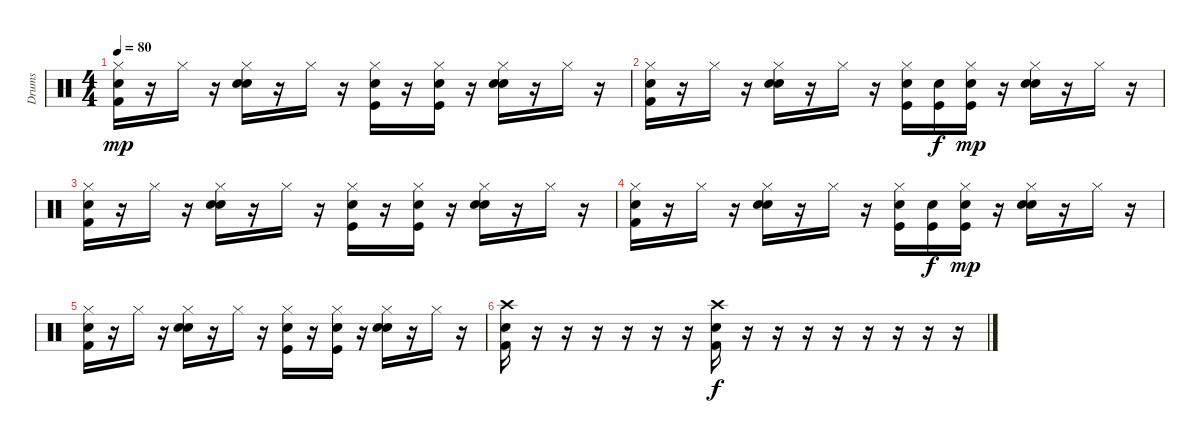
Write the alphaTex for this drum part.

\track ("Drums" "Drums") {instrument percussion}
\staff {score}
\articulation defaults
\ts (4 4)
\tempo 80
\clef neutral
\ks c
("Hi-Hat (closed)" "Kick (hit) 2" "Snare (hit) 2").16{dy mp} r.16 "Hi-Hat (closed)".16 r.16 ("Hi-Hat (closed)" "Electric Snare (hit)" "Electric Snare (hit)").16 r.16 "Hi-Hat (closed)".16 r.16 ("Hi-Hat (closed)" "Kick (hit)" "Snare (hit) 2").16 r.16 ("Hi-Hat (closed)" "Kick (hit)" "Snare (hit) 2").16 r.16 ("Hi-Hat (closed)" "Electric Snare (hit)" "Electric Snare (hit)").16 r.16 "Hi-Hat (closed)".16 r.16 |
("Hi-Hat (closed)" "Kick (hit) 2" "Snare (hit) 2").16 r.16 "Hi-Hat (closed)".16 r.16 ("Hi-Hat (closed)" "Electric Snare (hit)" "Electric Snare (hit)").16 r.16 "Hi-Hat (closed)".16 r.16 ("Hi-Hat (closed)" "Kick (hit)" "Snare (hit) 2").16 ("Kick (hit)" "Snare (hit) 2").16{dy f} ("Hi-Hat (closed)" "Kick (hit)" "Snare (hit) 2").16{dy mp} r.16 ("Hi-Hat (closed)" "Electric Snare (hit)" "Electric Snare (hit)").16 r.16 "Hi-Hat (closed)".16 r.16 |
("Hi-Hat (closed)" "Kick (hit) 2" "Snare (hit) 2").16 r.16 "Hi-Hat (closed)".16 r.16 ("Hi-Hat (closed)" "Electric Snare (hit)" "Electric Snare (hit)").16 r.16 "Hi-Hat (closed)".16 r.16 ("Hi-Hat (closed)" "Kick (hit)" "Snare (hit) 2").16 r.16 ("Hi-Hat (closed)" "Kick (hit)" "Snare (hit) 2").16 r.16 ("Hi-Hat (closed)" "Electric Snare (hit)" "Electric Snare (hit)").16 r.16 "Hi-Hat (closed)".16 r.16 |
("Hi-Hat (closed)" "Kick (hit) 2" "Snare (hit) 2").16 r.16 "Hi-Hat (closed)".16 r.16 ("Hi-Hat (closed)" "Electric Snare (hit)" "Electric Snare (hit)").16 r.16 "Hi-Hat (closed)".16 r.16 ("Hi-Hat (closed)" "Kick (hit)" "Snare (hit) 2").16 ("Kick (hit)" "Snare (hit) 2").16{dy f} ("Hi-Hat (closed)" "Kick (hit)" "Snare (hit) 2").16{dy mp} r.16 ("Hi-Hat (closed)" "Electric Snare (hit)" "Electric Snare (hit)").16 r.16 "Hi-Hat (closed)".16 r.16 |
("Hi-Hat (closed)" "Kick (hit) 2" "Snare (hit) 2").16 r.16 "Hi-Hat (closed)".16 r.16 ("Hi-Hat (closed)" "Electric Snare (hit)" "Electric Snare (hit)").16 r.16 "Hi-Hat (closed)".16 r.16 ("Hi-Hat (closed)" "Kick (hit)" "Snare (hit) 2").16 r.16 ("Hi-Hat (closed)" "Kick (hit)" "Snare (hit) 2").16 r.16 ("Hi-Hat (closed)" "Electric Snare (hit)" "Electric Snare (hit)").16 r.16 "Hi-Hat (closed)".16 r.16 |
("Crash high (hit)" "Kick (hit) 2" "Snare (hit) 2").16 r.16 r.16 r.16 r.16 r.16 r.16 ("Crash high (hit)" "Kick (hit) 2" "Snare (hit) 2").16{dy f} r.16 r.16 r.16 r.16 r.16 r.16 r.16 r.16
